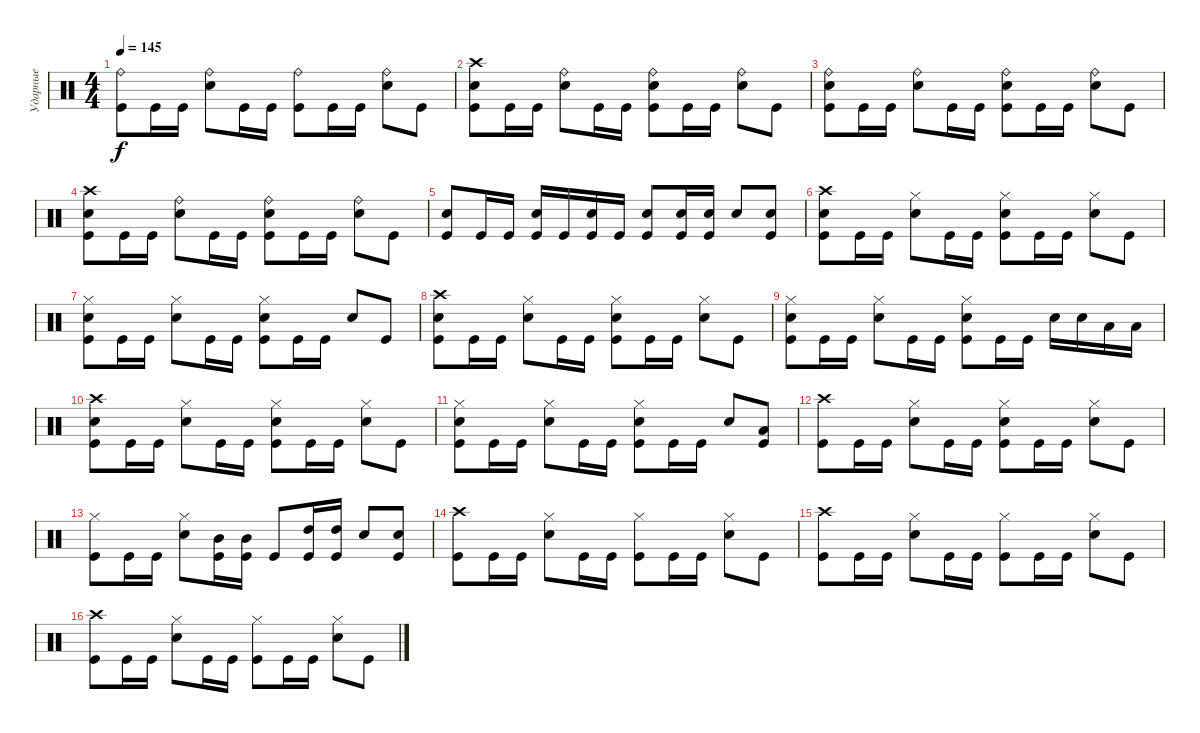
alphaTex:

\track ("Ударные" "Ударные") {instrument percussion}
\staff {score}
\articulation defaults
\ts (4 4)
\tempo 145
\clef neutral
\ks c
("Ride (bell)" "Kick (hit)").8{dy f} "Kick (hit)".16 "Kick (hit)".16 ("Ride (bell)" "Electric Snare (hit)").8 "Kick (hit)".16 "Kick (hit)".16 ("Ride (bell)" "Kick (hit)").8 "Kick (hit)".16 "Kick (hit)".16 ("Ride (bell)" "Electric Snare (hit)").8 "Kick (hit)".8 |
("Crash high (hit)" "Electric Snare (hit)" "Kick (hit)").8 "Kick (hit)".16 "Kick (hit)".16 ("Ride (bell)" "Electric Snare (hit)").8 "Kick (hit)".16 "Kick (hit)".16 ("Ride (bell)" "Electric Snare (hit)" "Kick (hit)").8 "Kick (hit)".16 "Kick (hit)".16 ("Ride (bell)" "Electric Snare (hit)").8 "Kick (hit)".8 |
("Ride (bell)" "Electric Snare (hit)" "Kick (hit)").8 "Kick (hit)".16 "Kick (hit)".16 ("Ride (bell)" "Electric Snare (hit)").8 "Kick (hit)".16 "Kick (hit)".16 ("Ride (bell)" "Electric Snare (hit)" "Kick (hit)").8 "Kick (hit)".16 "Kick (hit)".16 ("Ride (bell)" "Electric Snare (hit)").8 "Kick (hit)".8 |
("Crash high (hit)" "Electric Snare (hit)" "Kick (hit)").8 "Kick (hit)".16 "Kick (hit)".16 ("Ride (bell)" "Electric Snare (hit)").8 "Kick (hit)".16 "Kick (hit)".16 ("Ride (bell)" "Electric Snare (hit)" "Kick (hit)").8 "Kick (hit)".16 "Kick (hit)".16 ("Ride (bell)" "Electric Snare (hit)").8 "Kick (hit)".8 |
("Electric Snare (hit)" "Kick (hit)").8 "Kick (hit)".16 "Kick (hit)".16 ("Electric Snare (hit)" "Kick (hit)").16 "Kick (hit)".16 ("Electric Snare (hit)" "Kick (hit)").16 "Kick (hit)".16 ("Electric Snare (hit)" "Kick (hit)").8 ("Electric Snare (hit)" "Kick (hit)").16 ("Electric Snare (hit)" "Kick (hit)").16 "Electric Snare (hit)".8 ("Electric Snare (hit)" "Kick (hit)").8 |
("Crash high (hit)" "Electric Snare (hit)" "Kick (hit)").8 "Kick (hit)".16 "Kick (hit)".16 ("Hi-Hat (closed)" "Electric Snare (hit)").8 "Kick (hit)".16 "Kick (hit)".16 ("Hi-Hat (closed)" "Electric Snare (hit)" "Kick (hit)").8 "Kick (hit)".16 "Kick (hit)".16 ("Hi-Hat (closed)" "Electric Snare (hit)").8 "Kick (hit)".8 |
("Hi-Hat (closed)" "Electric Snare (hit)" "Kick (hit)").8 "Kick (hit)".16 "Kick (hit)".16 ("Hi-Hat (closed)" "Electric Snare (hit)").8 "Kick (hit)".16 "Kick (hit)".16 ("Hi-Hat (closed)" "Electric Snare (hit)" "Kick (hit)").8 "Kick (hit)".16 "Kick (hit)".16 "Electric Snare (hit)".8 "Kick (hit)".8 |
("Crash high (hit)" "Electric Snare (hit)" "Kick (hit)").8 "Kick (hit)".16 "Kick (hit)".16 ("Hi-Hat (closed)" "Electric Snare (hit)").8 "Kick (hit)".16 "Kick (hit)".16 ("Hi-Hat (closed)" "Electric Snare (hit)" "Kick (hit)").8 "Kick (hit)".16 "Kick (hit)".16 ("Hi-Hat (closed)" "Electric Snare (hit)").8 "Kick (hit)".8 |
("Hi-Hat (closed)" "Electric Snare (hit)" "Kick (hit)").8 "Kick (hit)".16 "Kick (hit)".16 ("Hi-Hat (closed)" "Electric Snare (hit)").8 "Kick (hit)".16 "Kick (hit)".16 ("Hi-Hat (closed)" "Electric Snare (hit)" "Kick (hit)").8 "Kick (hit)".16 "Kick (hit)".16 "Electric Snare (hit)".16 "Electric Snare (hit)".16 "Low Tom (hit)".16 "Low Tom (hit)".16 |
("Crash high (hit)" "Electric Snare (hit)" "Kick (hit)").8 "Kick (hit)".16 "Kick (hit)".16 ("Hi-Hat (closed)" "Electric Snare (hit)").8 "Kick (hit)".16 "Kick (hit)".16 ("Hi-Hat (closed)" "Electric Snare (hit)" "Kick (hit)").8 "Kick (hit)".16 "Kick (hit)".16 ("Hi-Hat (closed)" "Electric Snare (hit)").8 "Kick (hit)".8 |
("Hi-Hat (closed)" "Electric Snare (hit)" "Kick (hit)").8 "Kick (hit)".16 "Kick (hit)".16 ("Hi-Hat (closed)" "Electric Snare (hit)").8 "Kick (hit)".16 "Kick (hit)".16 ("Hi-Hat (closed)" "Electric Snare (hit)" "Kick (hit)").8 "Kick (hit)".16 "Kick (hit)".16 "Electric Snare (hit)".8 ("Low Tom (hit)" "Kick (hit)").8 |
("Crash high (hit)" "Kick (hit)").8 "Kick (hit)".16 "Kick (hit)".16 ("Hi-Hat (closed)" "Electric Snare (hit)").8 "Kick (hit)".16 "Kick (hit)".16 ("Hi-Hat (closed)" "Electric Snare (hit)" "Kick (hit)").8 "Kick (hit)".16 "Kick (hit)".16 ("Hi-Hat (closed)" "Electric Snare (hit)").8 "Kick (hit)".8 |
("Hi-Hat (closed)" "Kick (hit)").8 "Kick (hit)".16 "Kick (hit)".16 ("Hi-Hat (closed)" "Electric Snare (hit)").8 ("Mid Tom (hit)" "Kick (hit)").16 ("Mid Tom (hit)" "Kick (hit)").16 "Kick (hit)".8 ("High Tom (hit)" "Kick (hit)").16 ("High Tom (hit)" "Kick (hit)").16 "Electric Snare (hit)".8 ("Electric Snare (hit)" "Kick (hit)").8 |
("Crash high (hit)" "Kick (hit)").8 "Kick (hit)".16 "Kick (hit)".16 ("Hi-Hat (closed)" "Electric Snare (hit)").8 "Kick (hit)".16 "Kick (hit)".16 ("Hi-Hat (closed)" "Kick (hit)").8 "Kick (hit)".16 "Kick (hit)".16 ("Hi-Hat (closed)" "Electric Snare (hit)").8 "Kick (hit)".8 |
("Crash high (hit)" "Kick (hit)").8 "Kick (hit)".16 "Kick (hit)".16 ("Hi-Hat (closed)" "Electric Snare (hit)").8 "Kick (hit)".16 "Kick (hit)".16 ("Hi-Hat (closed)" "Kick (hit)").8 "Kick (hit)".16 "Kick (hit)".16 ("Hi-Hat (closed)" "Electric Snare (hit)").8 "Kick (hit)".8 |
("Crash high (hit)" "Kick (hit)").8 "Kick (hit)".16 "Kick (hit)".16 ("Hi-Hat (closed)" "Electric Snare (hit)").8 "Kick (hit)".16 "Kick (hit)".16 ("Hi-Hat (closed)" "Kick (hit)").8 "Kick (hit)".16 "Kick (hit)".16 ("Hi-Hat (closed)" "Electric Snare (hit)").8 "Kick (hit)".8
